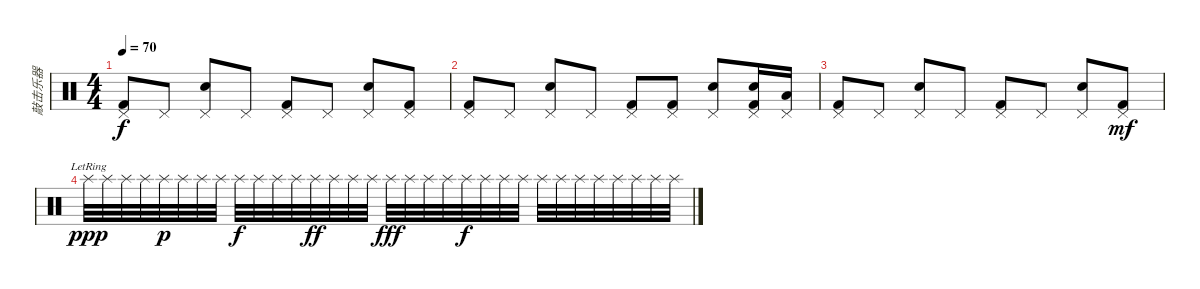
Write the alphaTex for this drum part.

\track ("敲击乐器" "敲击乐器") {instrument percussion}
\staff {score}
\articulation defaults
\ts (4 4)
\tempo 70
\clef neutral
\ks c
("Pedal Hi-Hat (hit)" "Kick (hit) 2").8{dy f} "Pedal Hi-Hat (hit)".8 ("Pedal Hi-Hat (hit)" "Snare (hit) 2").8 "Pedal Hi-Hat (hit)".8 ("Pedal Hi-Hat (hit)" "Kick (hit) 2").8 "Pedal Hi-Hat (hit)".8 ("Pedal Hi-Hat (hit)" "Snare (hit) 2").8 ("Pedal Hi-Hat (hit)" "Kick (hit) 2").8 |
("Pedal Hi-Hat (hit)" "Kick (hit) 2").8 "Pedal Hi-Hat (hit)".8 ("Pedal Hi-Hat (hit)" "Snare (hit) 2").8 "Pedal Hi-Hat (hit)".8 ("Pedal Hi-Hat (hit)" "Kick (hit) 2").8 ("Pedal Hi-Hat (hit)" "Kick (hit) 2").8 ("Pedal Hi-Hat (hit)" "Snare (hit) 2").8 ("Pedal Hi-Hat (hit)" "Snare (hit) 2" "Kick (hit) 2").16 ("Pedal Hi-Hat (hit)" "Low Tom (hit)").16 |
("Pedal Hi-Hat (hit)" "Kick (hit) 2").8 "Pedal Hi-Hat (hit)".8 ("Pedal Hi-Hat (hit)" "Snare (hit) 2").8 "Pedal Hi-Hat (hit)".8 ("Pedal Hi-Hat (hit)" "Kick (hit) 2").8 "Pedal Hi-Hat (hit)".8 ("Pedal Hi-Hat (hit)" "Snare (hit) 2").8 ("Pedal Hi-Hat (hit)" "Kick (hit) 2").8{dy mf} |
"Splash (hit)"{lr}.32{dy ppp} "Splash (hit)".32 "Splash (hit)".32 "Splash (hit)".32 "Splash (hit)".32{dy p} "Splash (hit)".32 "Splash (hit)".32 "Splash (hit)".32 "Splash (hit)".32{dy f} "Splash (hit)".32 "Splash (hit)".32 "Splash (hit)".32 "Splash (hit)".32{dy ff} "Splash (hit)".32 "Splash (hit)".32 "Splash (hit)".32 "Splash (hit)".32{dy fff} "Splash (hit)".32 "Splash (hit)".32 "Splash (hit)".32 "Splash (hit)".32{dy f} "Splash (hit)".32 "Splash (hit)".32 "Splash (hit)".32 "Splash (hit)".32 "Splash (hit)".32 "Splash (hit)".32 "Splash (hit)".32 "Splash (hit)".32 "Splash (hit)".32 "Splash (hit)".32 "Splash (hit)".32
